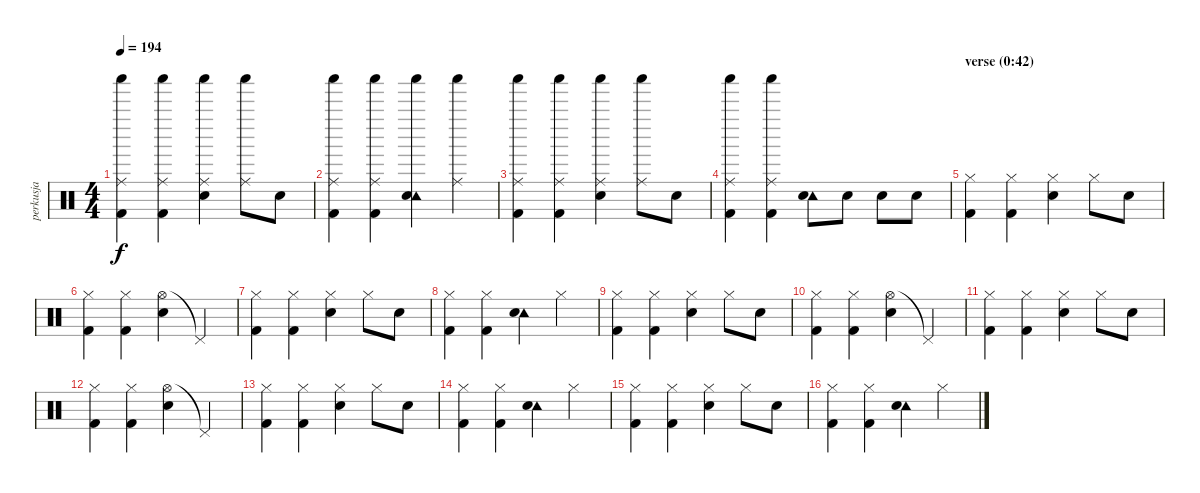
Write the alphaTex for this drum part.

\track ("perkusja" "perkusja") {instrument percussion}
\staff {score}
\articulation defaults
\ts (4 4)
\tempo 194
\clef neutral
\ks c
("Ride (middle)" "Shaker (hit)" "Kick (hit) 2").4{dy f} ("Ride (middle)" "Shaker (hit)" "Kick (hit) 2").4 ("Ride (middle)" "Shaker (hit)" "Snare (hit) 2").4 ("Ride (middle)" "Shaker (hit)").8 "Snare (hit) 2".8 |
("Ride (middle)" "Shaker (hit)" "Kick (hit) 2").4 ("Ride (middle)" "Shaker (hit)" "Kick (hit) 2").4 ("Tambourine (hit)" "Shaker (hit)" "Snare (hit) 2").4 ("Ride (middle)" "Shaker (hit)").4 |
("Ride (middle)" "Shaker (hit)" "Kick (hit) 2").4 ("Ride (middle)" "Shaker (hit)" "Kick (hit) 2").4 ("Ride (middle)" "Shaker (hit)" "Snare (hit) 2").4 ("Ride (middle)" "Shaker (hit)").8 "Snare (hit) 2".8 |
("Ride (middle)" "Shaker (hit)" "Kick (hit) 2").4 ("Ride (middle)" "Shaker (hit)" "Kick (hit) 2").4 ("Tambourine (hit)" "Snare (hit) 2").8 "Snare (hit) 2".8 "Snare (hit) 2".8 "Snare (hit) 2".8 |
\section ("" "verse (0:42)")
("Hi-Hat (closed)" "Kick (hit) 2").4 ("Hi-Hat (closed)" "Kick (hit) 2").4 ("Hi-Hat (closed)" "Snare (hit) 2").4 "Hi-Hat (closed)".8 "Snare (hit) 2".8 |
("Hi-Hat (closed)" "Kick (hit) 2").4 ("Hi-Hat (closed)" "Kick (hit) 2").4 ("Hi-Hat (open)" "Snare (hit) 2").4 "Pedal Hi-Hat (hit)"{t}.4 |
("Hi-Hat (closed)" "Kick (hit) 2").4 ("Hi-Hat (closed)" "Kick (hit) 2").4 ("Hi-Hat (closed)" "Snare (hit) 2").4 "Hi-Hat (closed)".8 "Snare (hit) 2".8 |
("Hi-Hat (closed)" "Kick (hit) 2").4 ("Hi-Hat (closed)" "Kick (hit) 2").4 ("Tambourine (hit)" "Snare (hit) 2").4 "Hi-Hat (closed)".4 |
("Hi-Hat (closed)" "Kick (hit) 2").4 ("Hi-Hat (closed)" "Kick (hit) 2").4 ("Hi-Hat (closed)" "Snare (hit) 2").4 "Hi-Hat (closed)".8 "Snare (hit) 2".8 |
("Hi-Hat (closed)" "Kick (hit) 2").4 ("Hi-Hat (closed)" "Kick (hit) 2").4 ("Hi-Hat (open)" "Snare (hit) 2").4 "Pedal Hi-Hat (hit)"{t}.4 |
("Hi-Hat (closed)" "Kick (hit) 2").4 ("Hi-Hat (closed)" "Kick (hit) 2").4 ("Hi-Hat (closed)" "Snare (hit) 2").4 "Hi-Hat (closed)".8 "Snare (hit) 2".8 |
("Hi-Hat (closed)" "Kick (hit) 2").4 ("Hi-Hat (closed)" "Kick (hit) 2").4 ("Hi-Hat (open)" "Snare (hit) 2").4 "Pedal Hi-Hat (hit)"{t}.4 |
("Hi-Hat (closed)" "Kick (hit) 2").4 ("Hi-Hat (closed)" "Kick (hit) 2").4 ("Hi-Hat (closed)" "Snare (hit) 2").4 "Hi-Hat (closed)".8 "Snare (hit) 2".8 |
("Hi-Hat (closed)" "Kick (hit) 2").4 ("Hi-Hat (closed)" "Kick (hit) 2").4 ("Tambourine (hit)" "Snare (hit) 2").4 "Hi-Hat (closed)".4 |
("Hi-Hat (closed)" "Kick (hit) 2").4 ("Hi-Hat (closed)" "Kick (hit) 2").4 ("Hi-Hat (closed)" "Snare (hit) 2").4 "Hi-Hat (closed)".8 "Snare (hit) 2".8 |
("Hi-Hat (closed)" "Kick (hit) 2").4 ("Hi-Hat (closed)" "Kick (hit) 2").4 ("Tambourine (hit)" "Snare (hit) 2").4 "Hi-Hat (closed)".4
